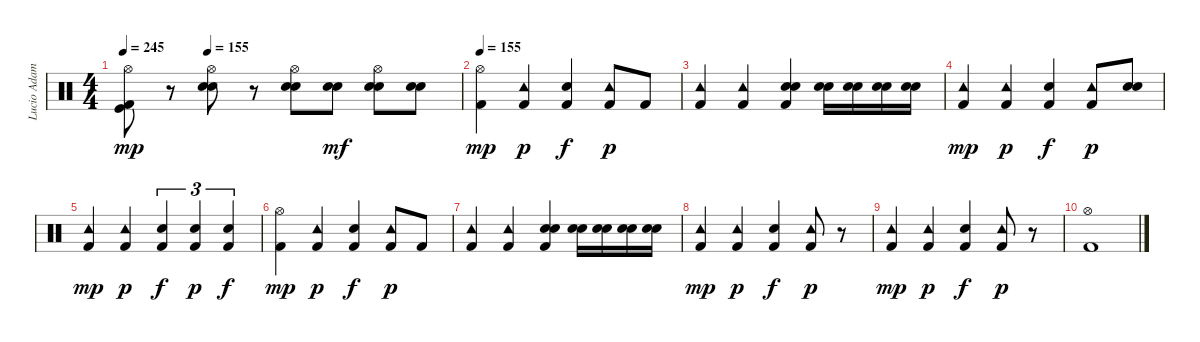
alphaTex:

\track ("Lucio Adamo (Bateria)" "Lucio Adam") {instrument percussion}
\staff {score}
\articulation defaults
\ts (4 4)
\tempo 245
\tempo (155 0.25)
\clef neutral
\ks c
("Hi-Hat (open)" "Kick (hit)" "Kick (hit) 2").8{dy mp} r.8 ("Hi-Hat (open)" "Snare (hit) 2" "Electric Snare (hit)").8 r.8 ("Hi-Hat (open)" "Snare (hit) 2" "Electric Snare (hit)").8 ("Snare (hit) 2" "Electric Snare (hit)").8{dy mf} ("Hi-Hat (open)" "Snare (hit) 2" "Electric Snare (hit)").8 ("Snare (hit) 2" "Electric Snare (hit)").8 |
\tempo 155
("Kick (hit) 2" "Hi-Hat (open)").4{dy mp} ("Tambourine (hit)" "Kick (hit) 2").4{dy p} ("Kick (hit) 2" "Electric Snare (hit)").4{dy f} ("Tambourine (hit)" "Kick (hit) 2").8{dy p} "Kick (hit) 2".8 |
("Kick (hit) 2" "Tambourine (hit)").4 ("Tambourine (hit)" "Kick (hit) 2").4 ("Kick (hit) 2" "Electric Snare (hit)" "Snare (hit) 2").4 ("Electric Snare (hit)" "Snare (hit) 2").16 ("Electric Snare (hit)" "Snare (hit) 2").16 ("Electric Snare (hit)" "Snare (hit) 2").16 ("Electric Snare (hit)" "Snare (hit) 2").16 |
("Kick (hit) 2" "Tambourine (hit)").4{dy mp} ("Tambourine (hit)" "Kick (hit) 2").4{dy p} ("Kick (hit) 2" "Electric Snare (hit)").4{dy f} ("Tambourine (hit)" "Kick (hit) 2").8{dy p} ("Electric Snare (hit)" "Snare (hit) 2").8 |
("Kick (hit) 2" "Tambourine (hit)").4{dy mp} ("Tambourine (hit)" "Kick (hit) 2").4{dy p} ("Kick (hit) 2" "Electric Snare (hit)").4{tu (3 2) dy f} ("Electric Snare (hit)" "Kick (hit) 2").4{tu (3 2) dy p} ("Electric Snare (hit)" "Kick (hit) 2").4{tu (3 2) dy f} |
("Kick (hit) 2" "Hi-Hat (open)").4{dy mp} ("Tambourine (hit)" "Kick (hit) 2").4{dy p} ("Kick (hit) 2" "Electric Snare (hit)").4{dy f} ("Tambourine (hit)" "Kick (hit) 2").8{dy p} "Kick (hit) 2".8 |
("Kick (hit) 2" "Tambourine (hit)").4 ("Tambourine (hit)" "Kick (hit) 2").4 ("Kick (hit) 2" "Electric Snare (hit)" "Snare (hit) 2").4 ("Electric Snare (hit)" "Snare (hit) 2").16 ("Electric Snare (hit)" "Snare (hit) 2").16 ("Electric Snare (hit)" "Snare (hit) 2").16 ("Electric Snare (hit)" "Snare (hit) 2").16 |
("Kick (hit) 2" "Tambourine (hit)").4{dy mp} ("Tambourine (hit)" "Kick (hit) 2").4{dy p} ("Kick (hit) 2" "Electric Snare (hit)").4{dy f} ("Tambourine (hit)" "Kick (hit) 2").8{dy p} r.8 |
("Kick (hit) 2" "Tambourine (hit)").4{dy mp} ("Tambourine (hit)" "Kick (hit) 2").4{dy p} ("Kick (hit) 2" "Electric Snare (hit)").4{dy f} ("Tambourine (hit)" "Kick (hit) 2").8{dy p} r.8 |
("Hi-Hat (open)" "Kick (hit) 2").1
